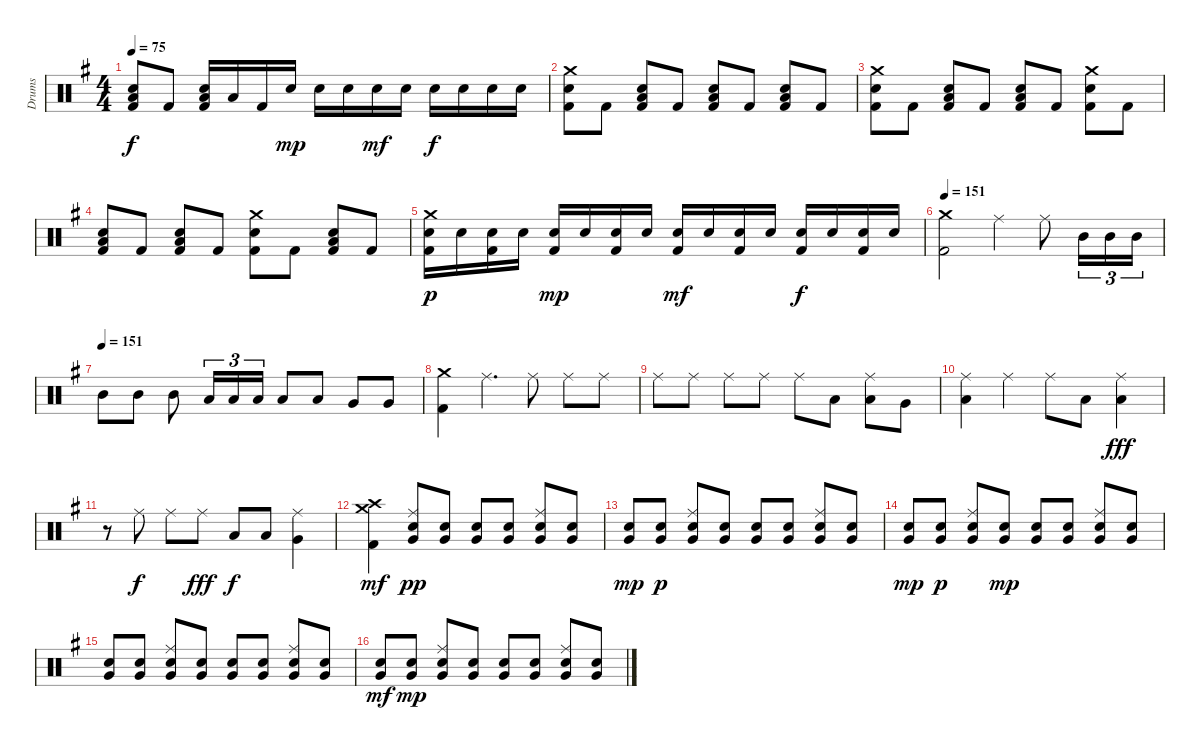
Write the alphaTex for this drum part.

\track ("Drums " "Drums ") {instrument percussion}
\staff {score}
\articulation defaults
\ts (4 4)
\tempo 75
\clef neutral
\ks eminor
("Electric Snare (hit)" "Low Floor Tom (hit)" "Kick (hit) 2").8{dy f} "Kick (hit) 2".8 ("Electric Snare (hit)" "Low Floor Tom (hit)" "Kick (hit) 2").16 "Low Floor Tom (hit)".16 "Kick (hit) 2".16 "Electric Snare (hit)".16{dy mp} "Snare (hit) 2".16 "Snare (hit) 2".16 "Snare (hit) 2".16{dy mf} "Snare (hit) 2".16 "Snare (hit) 2".16{dy f} "Snare (hit) 2".16 "Snare (hit) 2".16 "Snare (hit) 2".16 |
("Crash medium (hit)" "Electric Snare (hit)" "Kick (hit) 2").8 "Kick (hit) 2".8 ("Electric Snare (hit)" "Low Floor Tom (hit)" "Kick (hit) 2").8 "Kick (hit) 2".8 ("Electric Snare (hit)" "Low Floor Tom (hit)" "Kick (hit) 2").8 "Kick (hit) 2".8 ("Electric Snare (hit)" "Low Floor Tom (hit)" "Kick (hit) 2").8 "Kick (hit) 2".8 |
("Crash medium (hit)" "Electric Snare (hit)" "Kick (hit) 2").8 "Kick (hit) 2".8 ("Electric Snare (hit)" "Low Floor Tom (hit)" "Kick (hit) 2").8 "Kick (hit) 2".8 ("Electric Snare (hit)" "Low Floor Tom (hit)" "Kick (hit) 2").8 "Kick (hit) 2".8 ("Crash medium (hit)" "Electric Snare (hit)" "Kick (hit) 2").8 "Kick (hit) 2".8 |
("Electric Snare (hit)" "Low Floor Tom (hit)" "Kick (hit) 2").8 "Kick (hit) 2".8 ("Electric Snare (hit)" "Low Floor Tom (hit)" "Kick (hit) 2").8 "Kick (hit) 2".8 ("Crash medium (hit)" "Electric Snare (hit)" "Kick (hit) 2").8 "Kick (hit) 2".8 ("Electric Snare (hit)" "Low Floor Tom (hit)" "Kick (hit) 2").8 "Kick (hit) 2".8 |
("Crash medium (hit)" "Snare (hit) 2" "Kick (hit) 2").16{dy p} "Snare (hit) 2".16 ("Snare (hit) 2" "Kick (hit) 2").16 "Snare (hit) 2".16 ("Snare (hit) 2" "Kick (hit) 2").16{dy mp} "Snare (hit) 2".16 ("Snare (hit) 2" "Kick (hit) 2").16 "Snare (hit) 2".16 ("Snare (hit) 2" "Kick (hit) 2").16{dy mf} "Electric Snare (hit)".16 ("Snare (hit) 2" "Kick (hit) 2").16 "Electric Snare (hit)".16 ("Electric Snare (hit)" "Kick (hit) 2").16{dy f} "Electric Snare (hit)".16 ("Electric Snare (hit)" "Kick (hit) 2").16 "Snare (hit) 2".16 |
\tempo 151
("Crash medium (hit)" "Kick (hit) 2").2 "Ride (middle)".4 "Ride (middle)".8 "Mid Tom (hit)".16{tu (3 2)} "Mid Tom (hit)".16{tu (3 2)} "Mid Tom (hit)".16{tu (3 2)} |
\tempo (151)
"Mid Tom (hit)".8 "Mid Tom (hit)".8 "Mid Tom (hit)".8 "Low Tom (hit)".16{tu (3 2)} "Low Tom (hit)".16{tu (3 2)} "Low Tom (hit)".16{tu (3 2)} "Low Tom (hit)".8 "Low Tom (hit)".8 "Very Low Tom (hit)".8 "Very Low Tom (hit)".8 |
("Crash medium (hit)" "Kick (hit) 2").4 "Ride (middle)".4{d} "Ride (middle)".8 "Ride (middle)".8 "Ride (middle)".8 |
"Ride (middle)".8 "Ride (middle)".8 "Ride (middle)".8 "Ride (middle)".8 "Ride (middle)".8 "Low Tom (hit)".8 ("Ride (middle)" "Low Tom (hit)").8 "Very Low Tom (hit)".8 |
("Ride (middle)" "Low Floor Tom (hit)").4 "Ride (middle)".4 "Ride (middle)".8 "Low Tom (hit)".8 ("Ride (middle)" "Low Tom (hit)").4{dy fff} |
r.8 "Ride (middle)".8{dy f} "Ride (middle)".8 "Ride (middle)".8{dy fff} "Low Tom (hit)".8{dy f} "Low Tom (hit)".8 ("Ride (middle)" "Very Low Tom (hit)").4 |
("Crash medium (hit)" "Crash high (hit)" "Kick (hit) 2").4{dy mf} ("Ride (middle)" "Snare (hit) 2" "Very Low Tom (hit)").8{dy pp} ("Snare (hit) 2" "Very Low Tom (hit)").8 ("Snare (hit) 2" "Very Low Tom (hit)").8 ("Snare (hit) 2" "Very Low Tom (hit)").8 ("Ride (middle)" "Snare (hit) 2" "Very Low Tom (hit)").8 ("Snare (hit) 2" "Very Low Tom (hit)").8 |
("Snare (hit) 2" "Very Low Tom (hit)").8{dy mp} ("Snare (hit) 2" "Very Low Tom (hit)").8{dy p} ("Ride (middle)" "Snare (hit) 2" "Very Low Tom (hit)").8 ("Snare (hit) 2" "Very Low Tom (hit)").8 ("Snare (hit) 2" "Very Low Tom (hit)").8 ("Snare (hit) 2" "Very Low Tom (hit)").8 ("Ride (middle)" "Snare (hit) 2" "Very Low Tom (hit)").8 ("Snare (hit) 2" "Very Low Tom (hit)").8 |
("Snare (hit) 2" "Very Low Tom (hit)").8{dy mp} ("Snare (hit) 2" "Very Low Tom (hit)").8{dy p} ("Ride (middle)" "Snare (hit) 2" "Very Low Tom (hit)").8 ("Snare (hit) 2" "Very Low Tom (hit)").8{dy mp} ("Snare (hit) 2" "Very Low Tom (hit)").8 ("Snare (hit) 2" "Very Low Tom (hit)").8 ("Ride (middle)" "Snare (hit) 2" "Very Low Tom (hit)").8 ("Snare (hit) 2" "Very Low Tom (hit)").8 |
("Snare (hit) 2" "Very Low Tom (hit)").8 ("Snare (hit) 2" "Very Low Tom (hit)").8 ("Ride (middle)" "Snare (hit) 2" "Very Low Tom (hit)").8 ("Snare (hit) 2" "Very Low Tom (hit)").8 ("Snare (hit) 2" "Very Low Tom (hit)").8 ("Snare (hit) 2" "Very Low Tom (hit)").8 ("Ride (middle)" "Snare (hit) 2" "Very Low Tom (hit)").8 ("Snare (hit) 2" "Very Low Tom (hit)").8 |
("Snare (hit) 2" "Very Low Tom (hit)").8{dy mf} ("Snare (hit) 2" "Very Low Tom (hit)").8{dy mp} ("Ride (middle)" "Snare (hit) 2" "Very Low Tom (hit)").8 ("Snare (hit) 2" "Very Low Tom (hit)").8 ("Snare (hit) 2" "Very Low Tom (hit)").8 ("Snare (hit) 2" "Very Low Tom (hit)").8 ("Ride (middle)" "Snare (hit) 2" "Very Low Tom (hit)").8 ("Snare (hit) 2" "Very Low Tom (hit)").8
